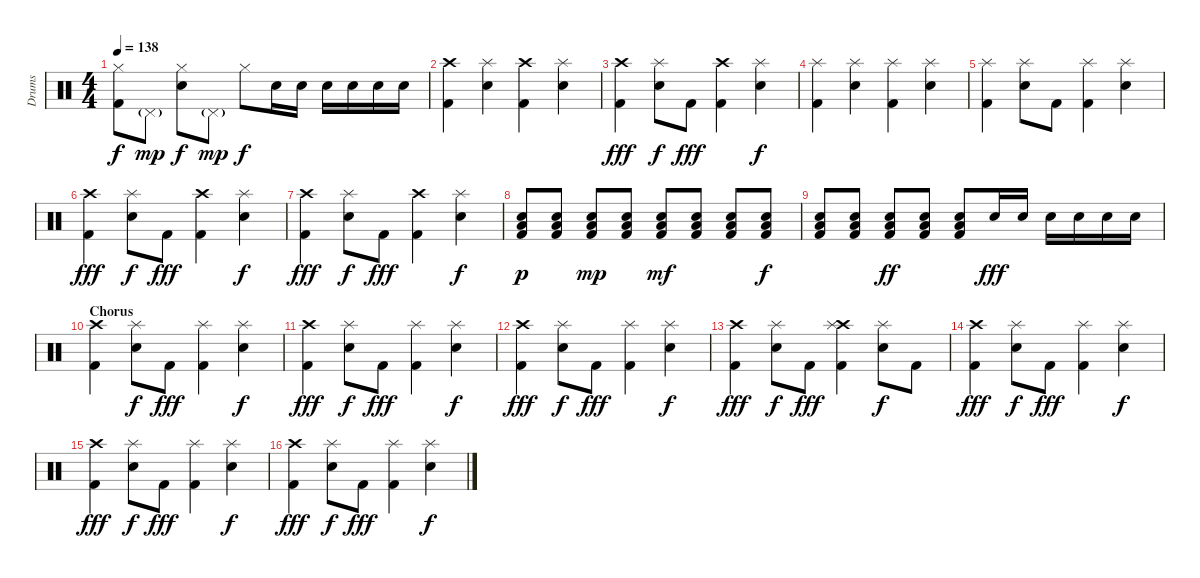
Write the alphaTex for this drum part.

\track ("Drums" "Drums") {instrument percussion}
\staff {score}
\articulation defaults
\ts (4 4)
\tempo 138
\clef neutral
\ks c
("Hi-Hat (closed)" "Kick (hit) 2").8{dy f} "Pedal Hi-Hat (hit)"{g}.8{dy mp} ("Hi-Hat (closed)" "Snare (hit) 2").8{dy f} "Pedal Hi-Hat (hit)"{g}.8{dy mp} "Hi-Hat (closed)".8{dy f} "Snare (hit) 2".16 "Snare (hit) 2".16 "Snare (hit) 2".16 "Snare (hit) 2".16 "Snare (hit) 2".16 "Snare (hit) 2".16 |
("Crash high (hit)" "Kick (hit) 2").4 ("Splash (hit)" "Snare (hit) 2").4 ("Crash high (hit)" "Kick (hit) 2").4 ("Splash (hit)" "Snare (hit) 2").4 |
("Crash high (hit)" "Kick (hit) 2").4{dy fff} ("Splash (hit)" "Snare (hit) 2").8{dy f} "Kick (hit) 2".8{dy fff} ("Crash high (hit)" "Kick (hit) 2").4 ("Splash (hit)" "Snare (hit) 2").4{dy f} |
("Splash (hit)" "Kick (hit) 2").4 ("Splash (hit)" "Snare (hit) 2").4 ("Splash (hit)" "Kick (hit) 2").4 ("Splash (hit)" "Snare (hit) 2").4 |
("Splash (hit)" "Kick (hit) 2").4 ("Splash (hit)" "Snare (hit) 2").8 "Kick (hit) 2".8 ("Splash (hit)" "Kick (hit) 2").4 ("Splash (hit)" "Snare (hit) 2").4 |
("Crash high (hit)" "Kick (hit) 2").4{dy fff} ("Splash (hit)" "Snare (hit) 2").8{dy f} "Kick (hit) 2".8{dy fff} ("Crash high (hit)" "Kick (hit) 2").4 ("Splash (hit)" "Snare (hit) 2").4{dy f} |
("Crash high (hit)" "Kick (hit) 2").4{dy fff} ("Splash (hit)" "Snare (hit) 2").8{dy f} "Kick (hit) 2".8{dy fff} ("Crash high (hit)" "Kick (hit) 2").4 ("Splash (hit)" "Snare (hit) 2").4{dy f} |
("Snare (hit) 2" "Low Floor Tom (hit)" "Kick (hit) 2").8{dy p} ("Snare (hit) 2" "Low Floor Tom (hit)" "Kick (hit) 2").8 ("Snare (hit) 2" "Low Floor Tom (hit)" "Kick (hit) 2").8{dy mp} ("Snare (hit) 2" "Low Floor Tom (hit)" "Kick (hit) 2").8 ("Snare (hit) 2" "Low Floor Tom (hit)" "Kick (hit) 2").8{dy mf} ("Snare (hit) 2" "Low Floor Tom (hit)" "Kick (hit) 2").8 ("Snare (hit) 2" "Low Floor Tom (hit)" "Kick (hit) 2").8 ("Snare (hit) 2" "Low Floor Tom (hit)" "Kick (hit) 2").8{dy f} |
("Snare (hit) 2" "Low Floor Tom (hit)" "Kick (hit) 2").8 ("Snare (hit) 2" "Low Floor Tom (hit)" "Kick (hit) 2").8 ("Snare (hit) 2" "Low Floor Tom (hit)" "Kick (hit) 2").8{dy ff} ("Snare (hit) 2" "Low Floor Tom (hit)" "Kick (hit) 2").8 ("Snare (hit) 2" "Low Floor Tom (hit)" "Kick (hit) 2").8 "Snare (hit) 2".16{dy fff} "Snare (hit) 2".16 "Snare (hit) 2".16 "Snare (hit) 2".16 "Snare (hit) 2".16 "Snare (hit) 2".16 |
\section ("" "Chorus")
("Crash high (hit)" "Kick (hit) 2").4 ("Splash (hit)" "Snare (hit) 2").8{dy f} "Kick (hit) 2".8{dy fff} ("Splash (hit)" "Kick (hit) 2").4 ("Splash (hit)" "Snare (hit) 2").4{dy f} |
("Crash high (hit)" "Kick (hit) 2").4{dy fff} ("Splash (hit)" "Snare (hit) 2").8{dy f} "Kick (hit) 2".8{dy fff} ("Splash (hit)" "Kick (hit) 2").4 ("Splash (hit)" "Snare (hit) 2").4{dy f} |
("Crash high (hit)" "Kick (hit) 2").4{dy fff} ("Splash (hit)" "Snare (hit) 2").8{dy f} "Kick (hit) 2".8{dy fff} ("Splash (hit)" "Kick (hit) 2").4 ("Splash (hit)" "Snare (hit) 2").4{dy f} |
("Crash high (hit)" "Kick (hit) 2").4{dy fff} ("Splash (hit)" "Snare (hit) 2").8{dy f} "Kick (hit) 2".8{dy fff} ("Crash high (hit)" "Splash (hit)" "Kick (hit) 2").4 ("Splash (hit)" "Snare (hit) 2").8{dy f} "Kick (hit) 2".8 |
("Crash high (hit)" "Kick (hit) 2").4{dy fff} ("Splash (hit)" "Snare (hit) 2").8{dy f} "Kick (hit) 2".8{dy fff} ("Splash (hit)" "Kick (hit) 2").4 ("Splash (hit)" "Snare (hit) 2").4{dy f} |
("Crash high (hit)" "Kick (hit) 2").4{dy fff} ("Splash (hit)" "Snare (hit) 2").8{dy f} "Kick (hit) 2".8{dy fff} ("Splash (hit)" "Kick (hit) 2").4 ("Splash (hit)" "Snare (hit) 2").4{dy f} |
("Crash high (hit)" "Kick (hit) 2").4{dy fff} ("Splash (hit)" "Snare (hit) 2").8{dy f} "Kick (hit) 2".8{dy fff} ("Splash (hit)" "Kick (hit) 2").4 ("Splash (hit)" "Snare (hit) 2").4{dy f}
